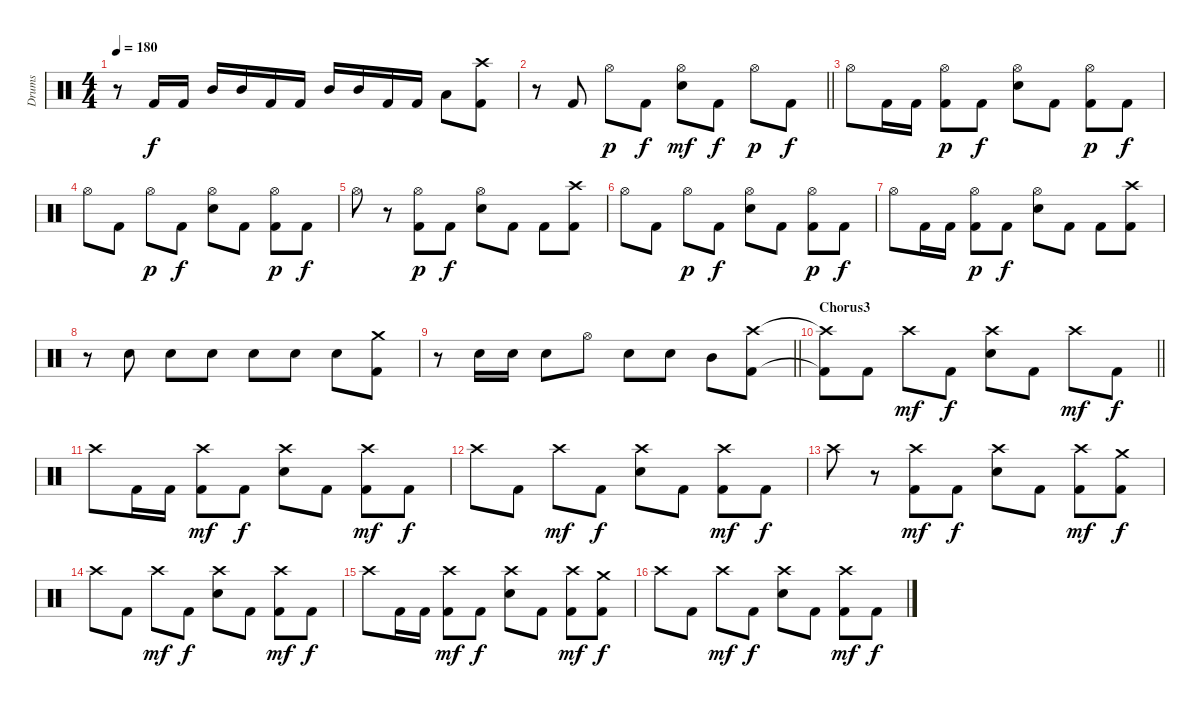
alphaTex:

\track ("Drums" "Drums") {instrument percussion}
\staff {score}
\articulation defaults
\ts (4 4)
\tempo 180
\clef neutral
\ks c
r.8{dy f} "Kick (hit) 2".16 "Kick (hit) 2".16 "Mid Tom (hit)".16 "Mid Tom (hit)".16 "Kick (hit) 2".16 "Kick (hit) 2".16 "Mid Tom (hit)".16 "Mid Tom (hit)".16 "Kick (hit) 2".16 "Kick (hit) 2".16 "Low Tom (hit)".8 ("Crash high (hit)" "Kick (hit) 2").8 |
\barLineRight lightlight
r.8 "Kick (hit) 2".8 "Hi-Hat (open)".8{dy p} "Kick (hit) 2".8{dy f} ("Hi-Hat (open)" "Electric Snare (hit)").8{dy mf} "Kick (hit) 2".8{dy f} "Hi-Hat (open)".8{dy p} "Kick (hit) 2".8{dy f} |
"Hi-Hat (open)".8 "Kick (hit) 2".16 "Kick (hit) 2".16 ("Hi-Hat (open)" "Kick (hit) 2").8{dy p} "Kick (hit) 2".8{dy f} ("Hi-Hat (open)" "Electric Snare (hit)").8 "Kick (hit) 2".8 ("Hi-Hat (open)" "Kick (hit) 2").8{dy p} "Kick (hit) 2".8{dy f} |
"Hi-Hat (open)".8 "Kick (hit) 2".8 "Hi-Hat (open)".8{dy p} "Kick (hit) 2".8{dy f} ("Hi-Hat (open)" "Electric Snare (hit)").8 "Kick (hit) 2".8 ("Hi-Hat (open)" "Kick (hit) 2").8{dy p} "Kick (hit) 2".8{dy f} |
"Hi-Hat (open)".8 r.8 ("Hi-Hat (open)" "Kick (hit) 2").8{dy p} "Kick (hit) 2".8{dy f} ("Hi-Hat (open)" "Electric Snare (hit)").8 "Kick (hit) 2".8 "Kick (hit) 2".8 ("Crash high (hit)" "Kick (hit) 2").8 |
"Hi-Hat (open)".8 "Kick (hit) 2".8 "Hi-Hat (open)".8{dy p} "Kick (hit) 2".8{dy f} ("Hi-Hat (open)" "Electric Snare (hit)").8 "Kick (hit) 2".8 ("Hi-Hat (open)" "Kick (hit) 2").8{dy p} "Kick (hit) 2".8{dy f} |
"Hi-Hat (open)".8 "Kick (hit) 2".16 "Kick (hit) 2".16 ("Hi-Hat (open)" "Kick (hit) 2").8{dy p} "Kick (hit) 2".8{dy f} ("Hi-Hat (open)" "Electric Snare (hit)").8 "Kick (hit) 2".8 "Kick (hit) 2".8 ("Crash high (hit)" "Kick (hit) 2").8 |
r.8 "Electric Snare (hit)".8 "Electric Snare (hit)".8 "Electric Snare (hit)".8 "Electric Snare (hit)".8 "Electric Snare (hit)".8 "Electric Snare (hit)".8 ("Crash medium (hit)" "Kick (hit) 2").8 |
\barLineRight lightlight
r.8 "Electric Snare (hit)".16 "Electric Snare (hit)".16 "Electric Snare (hit)".8 "Hi-Hat (open)".8 "Electric Snare (hit)".8 "Electric Snare (hit)".8 "Mid Tom (hit)".8 ("Crash high (hit)" "Kick (hit) 2").8 |
\section ("" "Chorus3")
\barLineRight lightlight
("Crash high (hit)"{t} "Kick (hit) 2"{t}).8 "Kick (hit) 2".8 "Crash high (hit)".8{dy mf} "Kick (hit) 2".8{dy f} ("Crash high (hit)" "Electric Snare (hit)").8 "Kick (hit) 2".8 "Crash high (hit)".8{dy mf} "Kick (hit) 2".8{dy f} |
"Crash high (hit)".8 "Kick (hit) 2".16 "Kick (hit) 2".16 ("Crash high (hit)" "Kick (hit) 2").8{dy mf} "Kick (hit) 2".8{dy f} ("Crash high (hit)" "Electric Snare (hit)").8 "Kick (hit) 2".8 ("Crash high (hit)" "Kick (hit) 2").8{dy mf} "Kick (hit) 2".8{dy f} |
"Crash high (hit)".8 "Kick (hit) 2".8 "Crash high (hit)".8{dy mf} "Kick (hit) 2".8{dy f} ("Crash high (hit)" "Electric Snare (hit)").8 "Kick (hit) 2".8 ("Crash high (hit)" "Kick (hit) 2").8{dy mf} "Kick (hit) 2".8{dy f} |
"Crash high (hit)".8 r.8 ("Crash high (hit)" "Kick (hit) 2").8{dy mf} "Kick (hit) 2".8{dy f} ("Crash high (hit)" "Electric Snare (hit)").8 "Kick (hit) 2".8 ("Crash high (hit)" "Kick (hit) 2").8{dy mf} ("Crash medium (hit)" "Kick (hit) 2").8{dy f} |
"Crash high (hit)".8 "Kick (hit) 2".8 "Crash high (hit)".8{dy mf} "Kick (hit) 2".8{dy f} ("Crash high (hit)" "Electric Snare (hit)").8 "Kick (hit) 2".8 ("Crash high (hit)" "Kick (hit) 2").8{dy mf} "Kick (hit) 2".8{dy f} |
"Crash high (hit)".8 "Kick (hit) 2".16 "Kick (hit) 2".16 ("Crash high (hit)" "Kick (hit) 2").8{dy mf} "Kick (hit) 2".8{dy f} ("Crash high (hit)" "Electric Snare (hit)").8 "Kick (hit) 2".8 ("Crash high (hit)" "Kick (hit) 2").8{dy mf} ("Crash medium (hit)" "Kick (hit) 2").8{dy f} |
"Crash high (hit)".8 "Kick (hit) 2".8 "Crash high (hit)".8{dy mf} "Kick (hit) 2".8{dy f} ("Crash high (hit)" "Electric Snare (hit)").8 "Kick (hit) 2".8 ("Crash high (hit)" "Kick (hit) 2").8{dy mf} "Kick (hit) 2".8{dy f}
